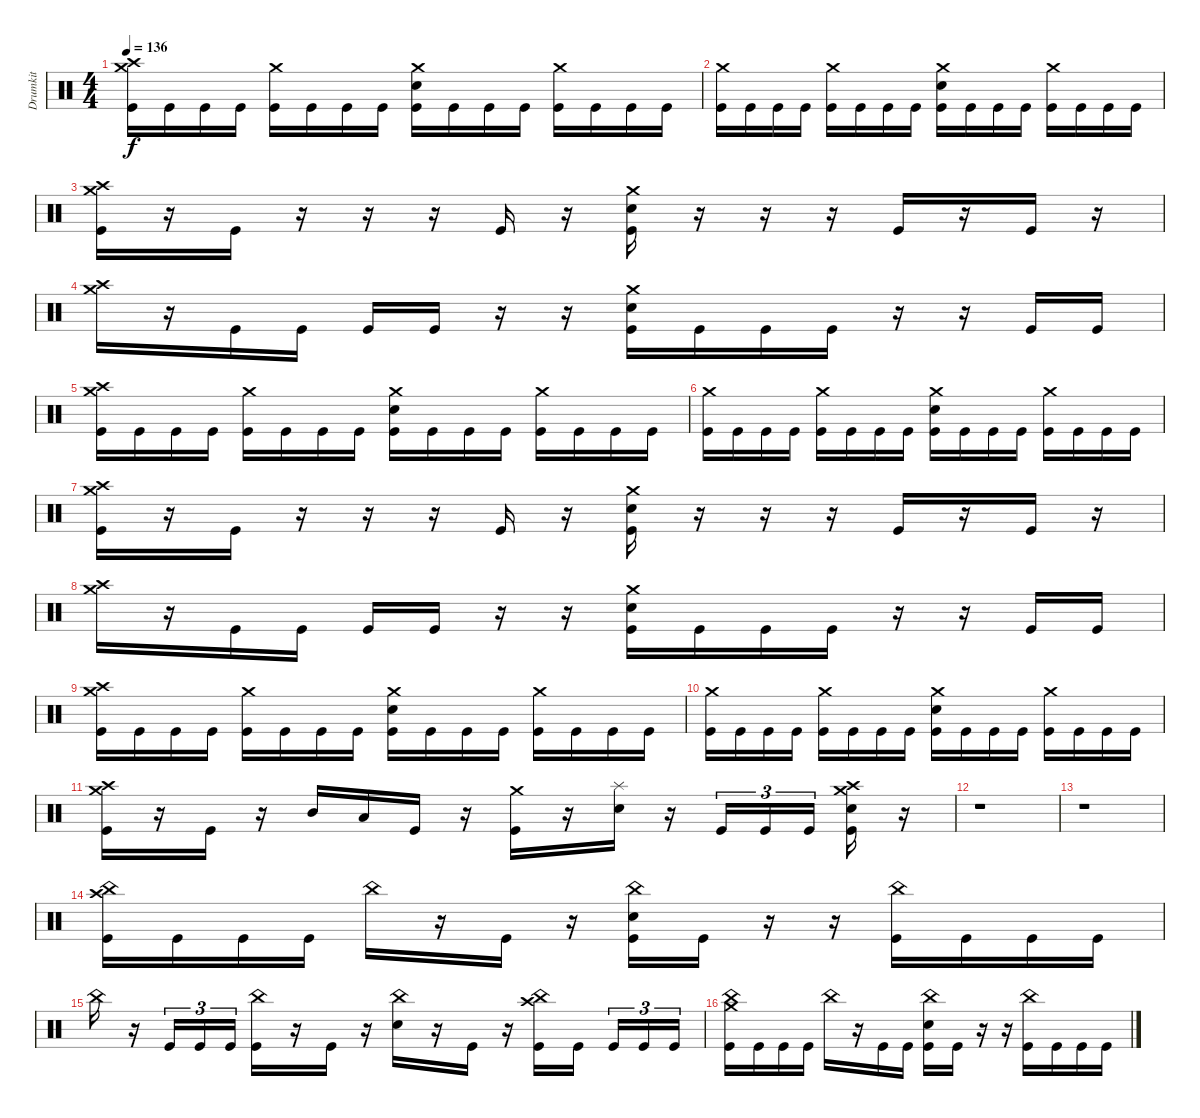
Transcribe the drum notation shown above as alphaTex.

\track ("Drumkit" "Drumkit") {instrument percussion}
\staff {score}
\articulation defaults
\ts (4 4)
\tempo 136
\clef neutral
\ks c
("Crash medium (hit)" "Crash high (hit)" "Kick (hit)").16{dy f} "Kick (hit)".16 "Kick (hit)".16 "Kick (hit)".16 ("Crash medium (hit)" "Kick (hit)").16 "Kick (hit)".16 "Kick (hit)".16 "Kick (hit)".16 ("Crash medium (hit)" "Snare (hit) 2" "Kick (hit)").16 "Kick (hit)".16 "Kick (hit)".16 "Kick (hit)".16 ("Crash medium (hit)" "Kick (hit)").16 "Kick (hit)".16 "Kick (hit)".16 "Kick (hit)".16 |
("Crash medium (hit)" "Kick (hit)").16 "Kick (hit)".16 "Kick (hit)".16 "Kick (hit)".16 ("Crash medium (hit)" "Kick (hit)").16 "Kick (hit)".16 "Kick (hit)".16 "Kick (hit)".16 ("Crash medium (hit)" "Snare (hit) 2" "Kick (hit)").16 "Kick (hit)".16 "Kick (hit)".16 "Kick (hit)".16 ("Crash medium (hit)" "Kick (hit)").16 "Kick (hit)".16 "Kick (hit)".16 "Kick (hit)".16 |
("Crash medium (hit)" "Crash high (hit)" "Kick (hit)").16 r.16 "Kick (hit)".16 r.16 r.16 r.16 "Kick (hit)".16 r.16 ("Crash medium (hit)" "Snare (hit) 2" "Kick (hit)").16 r.16 r.16 r.16 "Kick (hit)".16 r.16 "Kick (hit)".16 r.16 |
("Crash medium (hit)" "Crash high (hit)").16 r.16 "Kick (hit)".16 "Kick (hit)".16 "Kick (hit)".16 "Kick (hit)".16 r.16 r.16 ("Crash medium (hit)" "Snare (hit) 2" "Kick (hit)").16 "Kick (hit)".16 "Kick (hit)".16 "Kick (hit)".16 r.16 r.16 "Kick (hit)".16 "Kick (hit)".16 |
("Crash medium (hit)" "Crash high (hit)" "Kick (hit)").16 "Kick (hit)".16 "Kick (hit)".16 "Kick (hit)".16 ("Crash medium (hit)" "Kick (hit)").16 "Kick (hit)".16 "Kick (hit)".16 "Kick (hit)".16 ("Crash medium (hit)" "Snare (hit) 2" "Kick (hit)").16 "Kick (hit)".16 "Kick (hit)".16 "Kick (hit)".16 ("Crash medium (hit)" "Kick (hit)").16 "Kick (hit)".16 "Kick (hit)".16 "Kick (hit)".16 |
("Crash medium (hit)" "Kick (hit)").16 "Kick (hit)".16 "Kick (hit)".16 "Kick (hit)".16 ("Crash medium (hit)" "Kick (hit)").16 "Kick (hit)".16 "Kick (hit)".16 "Kick (hit)".16 ("Crash medium (hit)" "Snare (hit) 2" "Kick (hit)").16 "Kick (hit)".16 "Kick (hit)".16 "Kick (hit)".16 ("Crash medium (hit)" "Kick (hit)").16 "Kick (hit)".16 "Kick (hit)".16 "Kick (hit)".16 |
("Crash medium (hit)" "Crash high (hit)" "Kick (hit)").16 r.16 "Kick (hit)".16 r.16 r.16 r.16 "Kick (hit)".16 r.16 ("Crash medium (hit)" "Snare (hit) 2" "Kick (hit)").16 r.16 r.16 r.16 "Kick (hit)".16 r.16 "Kick (hit)".16 r.16 |
("Crash medium (hit)" "Crash high (hit)").16 r.16 "Kick (hit)".16 "Kick (hit)".16 "Kick (hit)".16 "Kick (hit)".16 r.16 r.16 ("Crash medium (hit)" "Snare (hit) 2" "Kick (hit)").16 "Kick (hit)".16 "Kick (hit)".16 "Kick (hit)".16 r.16 r.16 "Kick (hit)".16 "Kick (hit)".16 |
("Crash medium (hit)" "Crash high (hit)" "Kick (hit)").16 "Kick (hit)".16 "Kick (hit)".16 "Kick (hit)".16 ("Crash medium (hit)" "Kick (hit)").16 "Kick (hit)".16 "Kick (hit)".16 "Kick (hit)".16 ("Crash medium (hit)" "Snare (hit) 2" "Kick (hit)").16 "Kick (hit)".16 "Kick (hit)".16 "Kick (hit)".16 ("Crash medium (hit)" "Kick (hit)").16 "Kick (hit)".16 "Kick (hit)".16 "Kick (hit)".16 |
("Crash medium (hit)" "Kick (hit)").16 "Kick (hit)".16 "Kick (hit)".16 "Kick (hit)".16 ("Crash medium (hit)" "Kick (hit)").16 "Kick (hit)".16 "Kick (hit)".16 "Kick (hit)".16 ("Crash medium (hit)" "Snare (hit) 2" "Kick (hit)").16 "Kick (hit)".16 "Kick (hit)".16 "Kick (hit)".16 ("Crash medium (hit)" "Kick (hit)").16 "Kick (hit)".16 "Kick (hit)".16 "Kick (hit)".16 |
("Crash medium (hit)" "Crash high (hit)" "Kick (hit)").16 r.16 "Kick (hit)".16 r.16 "Mid Tom (hit)".16 "Low Tom (hit)".16 "Kick (hit)".16 r.16 ("Crash medium (hit)" "Kick (hit)").16 r.16 ("Splash (hit)" "Snare (hit) 2").16 r.16 "Kick (hit)".16{tu (3 2)} "Kick (hit)".16{tu (3 2)} "Kick (hit)".16{tu (3 2)} ("Crash medium (hit)" "Crash high (hit)" "Snare (hit) 2" "Kick (hit)").16 r.16 |
r.1 |
r.1 |
("China (hit)" "Crash high (hit)" "Kick (hit)").16 "Kick (hit)".16 "Kick (hit)".16 "Kick (hit)".16 "China (hit)".16 r.16 "Kick (hit)".16 r.16 ("China (hit)" "Snare (hit) 2" "Kick (hit)").16 "Kick (hit)".16 r.16 r.16 ("China (hit)" "Kick (hit)").16 "Kick (hit)".16 "Kick (hit)".16 "Kick (hit)".16 |
"China (hit)".16 r.16 "Kick (hit)".16{tu (3 2)} "Kick (hit)".16{tu (3 2)} "Kick (hit)".16{tu (3 2)} ("China (hit)" "Kick (hit)").16 r.16 "Kick (hit)".16 r.16 ("China (hit)" "Snare (hit) 2").16 r.16 "Kick (hit)".16 r.16 ("China (hit)" "Crash high (hit)" "Kick (hit)").16 "Kick (hit)".16 "Kick (hit)".16{tu (3 2)} "Kick (hit)".16{tu (3 2)} "Kick (hit)".16{tu (3 2)} |
("China (hit)" "Crash medium (hit)" "Kick (hit)").16 "Kick (hit)".16 "Kick (hit)".16 "Kick (hit)".16 "China (hit)".16 r.16 "Kick (hit)".16 "Kick (hit)".16 ("China (hit)" "Snare (hit) 2" "Kick (hit)").16 "Kick (hit)".16 r.16 r.16 ("China (hit)" "Kick (hit)").16 "Kick (hit)".16 "Kick (hit)".16 "Kick (hit)".16
